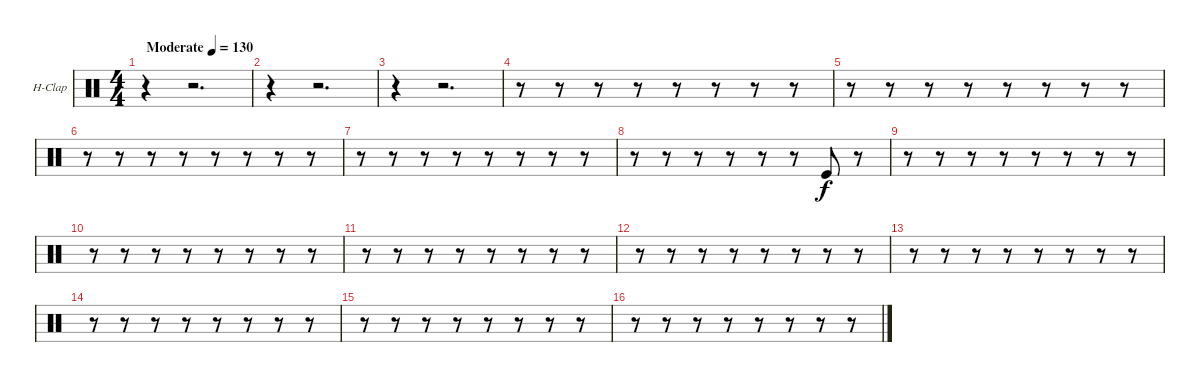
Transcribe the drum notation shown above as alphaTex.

\bracketExtendMode groupsimilarinstruments
\firstSystemTrackNameOrientation horizontal
\otherSystemsTrackNameOrientation horizontal
\track ("Hand Clap" "H-Clap") {instrument percussion}
\staff {score}
\articulation defaults
\ts (4 4)
\beaming (8 2 2 2 2)
\tempo (130 "Moderate")
\clef neutral
\ks c
r.4{dy f} r.2{d} |
r.4 r.2{d} |
r.4 r.2{d} |
r.8 r.8 r.8 r.8 r.8 r.8 r.8 r.8 |
r.8 r.8 r.8 r.8 r.8 r.8 r.8 r.8 |
r.8 r.8 r.8 r.8 r.8 r.8 r.8 r.8 |
r.8 r.8 r.8 r.8 r.8 r.8 r.8 r.8 |
r.8 r.8 r.8 r.8 r.8 r.8 "Kick (hit)".8 r.8 |
r.8 r.8 r.8 r.8 r.8 r.8 r.8 r.8 |
r.8 r.8 r.8 r.8 r.8 r.8 r.8 r.8 |
r.8 r.8 r.8 r.8 r.8 r.8 r.8 r.8 |
r.8 r.8 r.8 r.8 r.8 r.8 r.8 r.8 |
r.8 r.8 r.8 r.8 r.8 r.8 r.8 r.8 |
r.8 r.8 r.8 r.8 r.8 r.8 r.8 r.8 |
r.8 r.8 r.8 r.8 r.8 r.8 r.8 r.8 |
r.8 r.8 r.8 r.8 r.8 r.8 r.8 r.8
